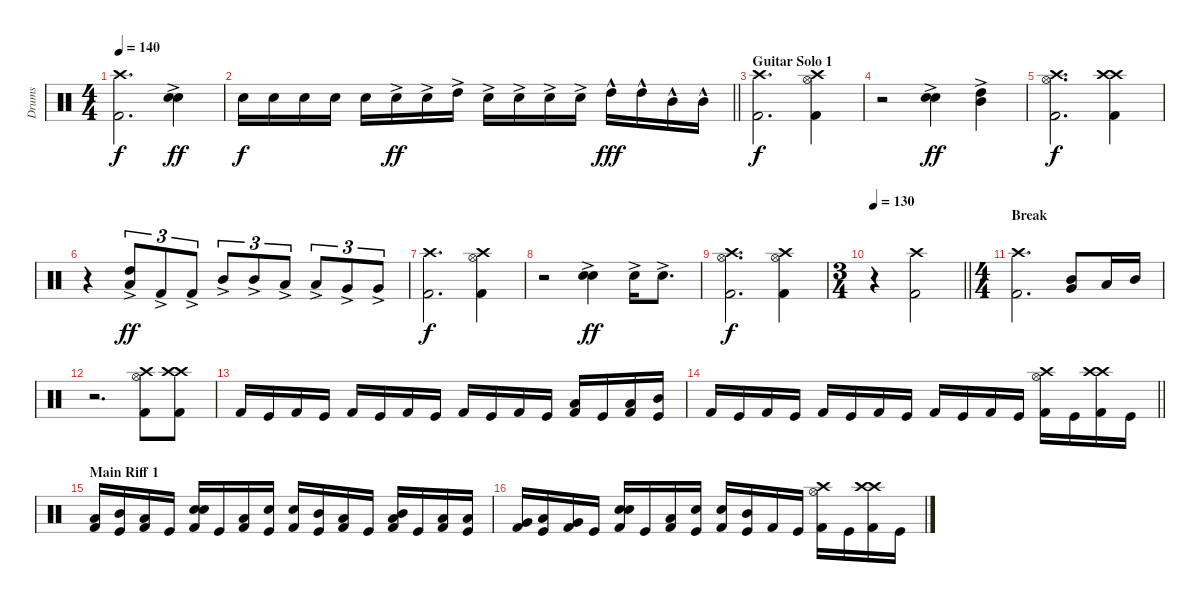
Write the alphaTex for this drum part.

\track ("Drums" "Drums") {instrument percussion}
\staff {score}
\articulation defaults
\ts (4 4)
\tempo 140
\clef neutral
\ks c
("Crash high (hit)" "Kick (hit) 2").2{d dy f} ("Snare (hit) 2"{ac} "Snare (hit) 2"{ac}).4{dy ff} |
\barLineRight lightlight "Snare (hit) 2".16{dy f} "Snare (hit) 2".16 "Snare (hit) 2".16 "Snare (hit) 2".16 "Snare (hit) 2".16 "Snare (hit) 2"{ac}.16{dy ff} "Snare (hit) 2"{ac}.16 "High Tom (hit)"{ac}.16 "Snare (hit) 2"{ac}.16 "Snare (hit) 2"{ac}.16 "Snare (hit) 2"{ac}.16 "Snare (hit) 2"{ac}.16 "High Tom (hit)"{hac}.16{dy fff} "High Tom (hit)"{hac}.16 "Mid Tom (hit)"{hac}.16 "Mid Tom (hit)"{hac}.16
|
\section ("" "Guitar Solo 1")
("Crash high (hit)" "Kick (hit) 2").2{d dy f} ("Crash high (hit)" "Hi-Hat (open)" "Kick (hit) 2").4 |
r.2 ("Snare (hit) 2"{ac} "Snare (hit) 2"{ac}).4{dy ff} ("High Tom (hit)"{ac} "Mid Tom (hit)"{ac}).4 |
("Crash high (hit)" "Hi-Hat (open)" "Kick (hit) 2").2{d dy f} ("Crash high (hit)" "Crash high (hit)" "Kick (hit) 2").4 |
r.4 ("High Tom (hit)"{ac} "Low Tom (hit)"{ac}).8{tu (3 2) dy ff} "Kick (hit) 2"{ac}.8{tu (3 2)} "Kick (hit) 2"{ac}.8{tu (3 2)} "Mid Tom (hit)"{ac}.8{tu (3 2)} "Mid Tom (hit)"{ac}.8{tu (3 2)} "Low Tom (hit)"{ac}.8{tu (3 2)} "Low Tom (hit)"{ac}.8{tu (3 2)} "Very Low Tom (hit)"{ac}.8{tu (3 2)} "Very Low Tom (hit)"{ac}.8{tu (3 2)} |
("Crash high (hit)" "Kick (hit) 2").2{d dy f} ("Crash high (hit)" "Hi-Hat (open)" "Kick (hit) 2").4 |
r.2 ("Snare (hit) 2"{ac} "Snare (hit) 2"{ac}).4{dy ff} "Snare (hit) 2"{ac}.16 "Snare (hit) 2"{ac}.8{d} |
("Crash high (hit)" "Hi-Hat (open)" "Kick (hit) 2").2{d dy f} ("Crash high (hit)" "Hi-Hat (open)" "Kick (hit) 2").4 |
\ts (3 4)
\tempo 130
\barLineRight lightlight
r.4 ("Crash high (hit)" "Kick (hit) 2").2 |
\ts (4 4)
\section ("" "Break")
("Crash high (hit)" "Kick (hit) 2").2{d} ("Mid Tom (hit)" "Very Low Tom (hit)").8 "Low Tom (hit)".16 "Mid Tom (hit)".16 |
r.2{d} ("Crash high (hit)" "Hi-Hat (open)" "Kick (hit) 2").8 ("Crash high (hit)" "Crash high (hit)" "Kick (hit) 2").8 |
"Kick (hit) 2".16 "Kick (hit)".16 "Kick (hit) 2".16 "Kick (hit)".16 "Kick (hit) 2".16 "Kick (hit)".16 "Kick (hit) 2".16 "Kick (hit)".16 "Kick (hit) 2".16 "Kick (hit)".16 "Kick (hit) 2".16 "Kick (hit)".16 ("Low Tom (hit)" "Kick (hit) 2").16 "Kick (hit)".16 ("Low Tom (hit)" "Kick (hit) 2").16 ("Mid Tom (hit)" "Kick (hit)").16 |
\barLineRight lightlight "Kick (hit) 2".16 "Kick (hit)".16 "Kick (hit) 2".16 "Kick (hit)".16 "Kick (hit) 2".16 "Kick (hit)".16 "Kick (hit) 2".16 "Kick (hit)".16 "Kick (hit) 2".16 "Kick (hit)".16 "Kick (hit) 2".16 "Kick (hit)".16
("Crash high (hit)" "Hi-Hat (open)" "Kick (hit) 2").16 "Kick (hit)".16 ("Crash high (hit)" "Crash high (hit)" "Kick (hit) 2").16 "Kick (hit)".16 |
\section ("" "Main Riff 1")
("Low Tom (hit)" "Kick (hit) 2").16 ("Mid Tom (hit)" "Kick (hit)").16 ("Low Tom (hit)" "Kick (hit) 2").16 "Kick (hit)".16 ("Snare (hit) 2" "Snare (hit) 2" "Kick (hit) 2").16 "Kick (hit)".16 ("Low Tom (hit)" "Kick (hit) 2").16 ("Snare (hit) 2" "Kick (hit)").16 ("Snare (hit) 2" "Kick (hit) 2").16 ("Mid Tom (hit)" "Kick (hit)").16 ("Low Tom (hit)" "Kick (hit) 2").16 "Kick (hit)".16 ("Mid Tom (hit)" "Low Tom (hit)" "Kick (hit) 2").16 "Kick (hit)".16 ("Low Tom (hit)" "Kick (hit) 2").16 ("Low Tom (hit)" "Kick (hit)").16 |
("Very Low Tom (hit)" "Kick (hit) 2").16 ("Low Tom (hit)" "Kick (hit)").16 ("Very Low Tom (hit)" "Kick (hit) 2").16 "Kick (hit)".16 ("Snare (hit) 2" "Snare (hit) 2" "Kick (hit) 2").16 "Kick (hit)".16 ("Low Tom (hit)" "Kick (hit) 2").16 ("Snare (hit) 2" "Kick (hit)").16 ("Snare (hit) 2" "Kick (hit) 2").16 ("Mid Tom (hit)" "Kick (hit)").16 "Kick (hit) 2".16 "Kick (hit)".16 ("Crash high (hit)" "Hi-Hat (open)" "Kick (hit) 2").16 "Kick (hit)".16 ("Crash high (hit)" "Crash high (hit)" "Kick (hit) 2").16 "Kick (hit)".16
